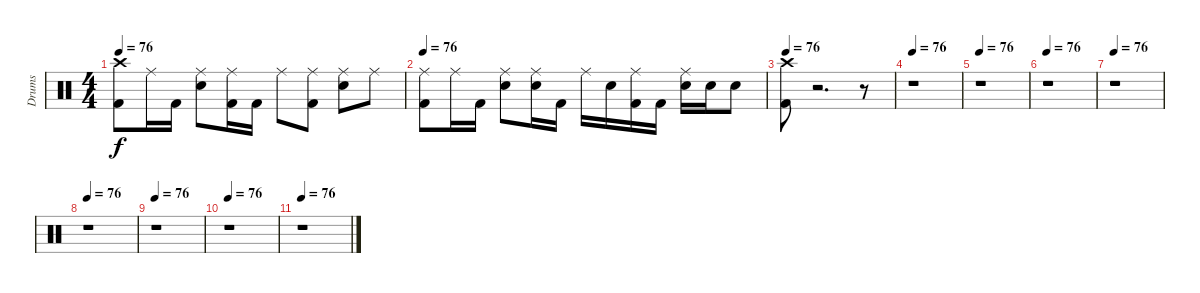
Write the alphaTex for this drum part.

\track ("Drums" "Drums") {instrument percussion}
\staff {score}
\articulation defaults
\ts (4 4)
\tempo 76
\clef neutral
\ks c
("Crash high (hit)" "Kick (hit) 2").8{dy f} "Ride (middle)".16 "Kick (hit) 2".16 ("Ride (middle)" "Snare (hit) 2").8 ("Ride (middle)" "Kick (hit) 2").16 "Kick (hit) 2".16 "Ride (middle)".8 ("Ride (middle)" "Kick (hit) 2").8 ("Ride (middle)" "Snare (hit) 2").8 "Ride (middle)".8 |
\tempo 76
("Ride (middle)" "Kick (hit) 2").8 "Ride (middle)".16 "Kick (hit) 2".16 ("Ride (middle)" "Snare (hit) 2").8 ("Ride (middle)" "Snare (hit) 2").16 "Kick (hit) 2".16 "Ride (middle)".16 "Snare (hit) 2".16 ("Ride (middle)" "Kick (hit) 2").16 "Kick (hit) 2".16 ("Ride (middle)" "Snare (hit) 2").16 "Snare (hit) 2".16 "Snare (hit) 2".8 |
\tempo 76
("Crash high (hit)" "Kick (hit) 2").8 r.2{d} r.8 |
\tempo 76
r.1 |
\tempo 76
r.1 |
\tempo 76
r.1 |
\tempo 76
r.1 |
\tempo 76
r.1 |
\tempo 76
r.1 |
\tempo 76
r.1 |
\tempo 76
r.1
